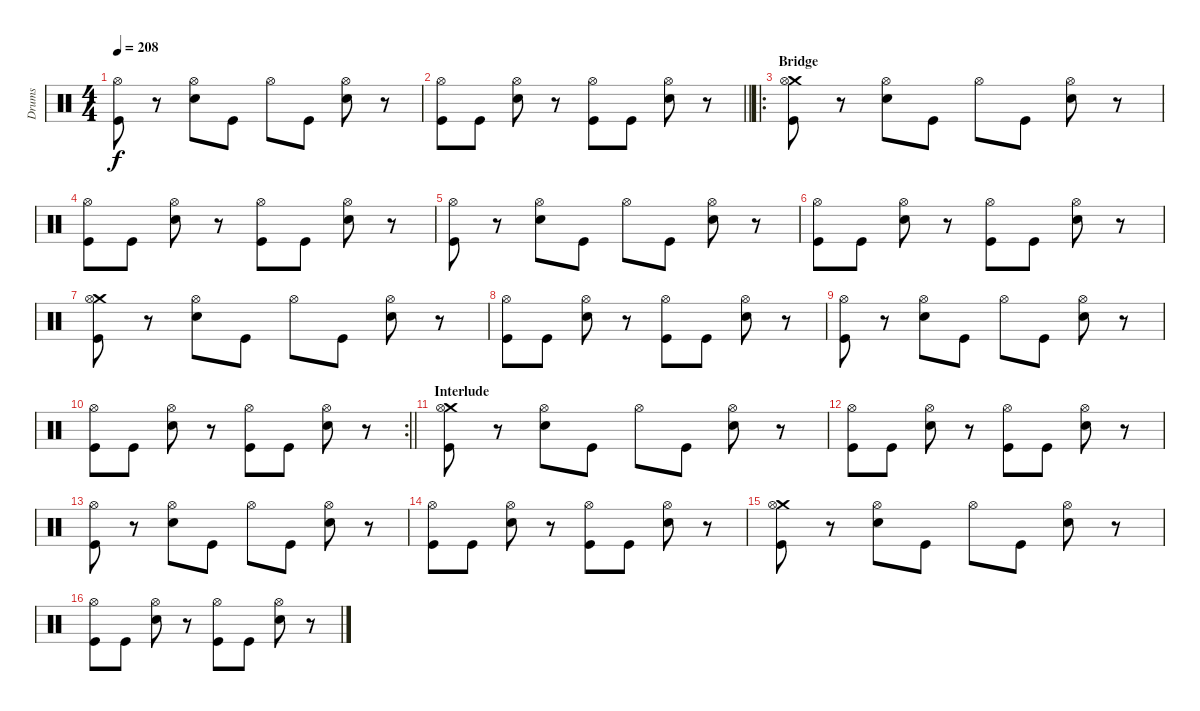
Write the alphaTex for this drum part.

\track ("Drums" "Drums") {instrument percussion}
\staff {score}
\articulation defaults
\ts (4 4)
\tempo 208
\clef neutral
\ks c
("Hi-Hat (open)" "Kick (hit)").8{dy f} r.8 ("Hi-Hat (open)" "Electric Snare (hit)").8 "Kick (hit)".8 "Hi-Hat (open)".8 "Kick (hit)".8 ("Hi-Hat (open)" "Electric Snare (hit)").8 r.8 |
\barLineRight lightlight
("Hi-Hat (open)" "Kick (hit)").8 "Kick (hit)".8 ("Hi-Hat (open)" "Electric Snare (hit)").8 r.8 ("Hi-Hat (open)" "Kick (hit)").8 "Kick (hit)".8 ("Hi-Hat (open)" "Electric Snare (hit)").8 r.8 |
\ro
\section ("" "Bridge")
("Crash medium (hit)" "Hi-Hat (open)" "Kick (hit)").8 r.8 ("Hi-Hat (open)" "Electric Snare (hit)").8 "Kick (hit)".8 "Hi-Hat (open)".8 "Kick (hit)".8 ("Hi-Hat (open)" "Electric Snare (hit)").8 r.8 |
("Hi-Hat (open)" "Kick (hit)").8 "Kick (hit)".8 ("Hi-Hat (open)" "Electric Snare (hit)").8 r.8 ("Hi-Hat (open)" "Kick (hit)").8 "Kick (hit)".8 ("Hi-Hat (open)" "Electric Snare (hit)").8 r.8 |
("Hi-Hat (open)" "Kick (hit)").8 r.8 ("Hi-Hat (open)" "Electric Snare (hit)").8 "Kick (hit)".8 "Hi-Hat (open)".8 "Kick (hit)".8 ("Hi-Hat (open)" "Electric Snare (hit)").8 r.8 |
("Hi-Hat (open)" "Kick (hit)").8 "Kick (hit)".8 ("Hi-Hat (open)" "Electric Snare (hit)").8 r.8 ("Hi-Hat (open)" "Kick (hit)").8 "Kick (hit)".8 ("Hi-Hat (open)" "Electric Snare (hit)").8 r.8 |
("Crash medium (hit)" "Hi-Hat (open)" "Kick (hit)").8 r.8 ("Hi-Hat (open)" "Electric Snare (hit)").8 "Kick (hit)".8 "Hi-Hat (open)".8 "Kick (hit)".8 ("Hi-Hat (open)" "Electric Snare (hit)").8 r.8 |
("Hi-Hat (open)" "Kick (hit)").8 "Kick (hit)".8 ("Hi-Hat (open)" "Electric Snare (hit)").8 r.8 ("Hi-Hat (open)" "Kick (hit)").8 "Kick (hit)".8 ("Hi-Hat (open)" "Electric Snare (hit)").8 r.8 |
("Hi-Hat (open)" "Kick (hit)").8 r.8 ("Hi-Hat (open)" "Electric Snare (hit)").8 "Kick (hit)".8 "Hi-Hat (open)".8 "Kick (hit)".8 ("Hi-Hat (open)" "Electric Snare (hit)").8 r.8 |
\rc 2
\barLineRight lightlight
("Hi-Hat (open)" "Kick (hit)").8 "Kick (hit)".8 ("Hi-Hat (open)" "Electric Snare (hit)").8 r.8 ("Hi-Hat (open)" "Kick (hit)").8 "Kick (hit)".8 ("Hi-Hat (open)" "Electric Snare (hit)").8 r.8 |
\section ("" "Interlude")
("Crash medium (hit)" "Hi-Hat (open)" "Kick (hit)").8 r.8 ("Hi-Hat (open)" "Electric Snare (hit)").8 "Kick (hit)".8 "Hi-Hat (open)".8 "Kick (hit)".8 ("Hi-Hat (open)" "Electric Snare (hit)").8 r.8 |
("Hi-Hat (open)" "Kick (hit)").8 "Kick (hit)".8 ("Hi-Hat (open)" "Electric Snare (hit)").8 r.8 ("Hi-Hat (open)" "Kick (hit)").8 "Kick (hit)".8 ("Hi-Hat (open)" "Electric Snare (hit)").8 r.8 |
("Hi-Hat (open)" "Kick (hit)").8 r.8 ("Hi-Hat (open)" "Electric Snare (hit)").8 "Kick (hit)".8 "Hi-Hat (open)".8 "Kick (hit)".8 ("Hi-Hat (open)" "Electric Snare (hit)").8 r.8 |
("Hi-Hat (open)" "Kick (hit)").8 "Kick (hit)".8 ("Hi-Hat (open)" "Electric Snare (hit)").8 r.8 ("Hi-Hat (open)" "Kick (hit)").8 "Kick (hit)".8 ("Hi-Hat (open)" "Electric Snare (hit)").8 r.8 |
("Crash medium (hit)" "Hi-Hat (open)" "Kick (hit)").8 r.8 ("Hi-Hat (open)" "Electric Snare (hit)").8 "Kick (hit)".8 "Hi-Hat (open)".8 "Kick (hit)".8 ("Hi-Hat (open)" "Electric Snare (hit)").8 r.8 |
("Hi-Hat (open)" "Kick (hit)").8 "Kick (hit)".8 ("Hi-Hat (open)" "Electric Snare (hit)").8 r.8 ("Hi-Hat (open)" "Kick (hit)").8 "Kick (hit)".8 ("Hi-Hat (open)" "Electric Snare (hit)").8 r.8
